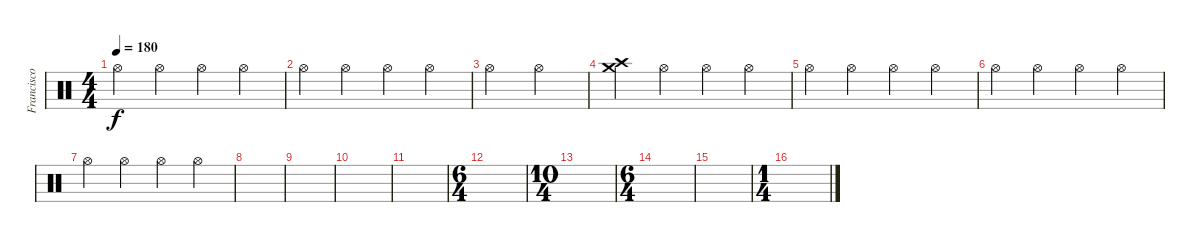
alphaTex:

\track ("Francisco Izquierdo (Percusión)" "Francisco ") {instrument percussion}
\staff {score}
\articulation defaults
\ts (4 4)
\tempo 180
\clef neutral
\ks c "Hi-Hat (open)".4{dy f} "Hi-Hat (open)".4 "Hi-Hat (open)".4 "Hi-Hat (open)".4
|
"Hi-Hat (open)".4 "Hi-Hat (open)".4 "Hi-Hat (open)".4 "Hi-Hat (open)".4 |
"Hi-Hat (open)".2 "Hi-Hat (open)".2 |
("Crash high (hit)" "Crash medium (hit)").4 "Hi-Hat (open)".4 "Hi-Hat (open)".4 "Hi-Hat (open)".4 |
"Hi-Hat (open)".4 "Hi-Hat (open)".4 "Hi-Hat (open)".4 "Hi-Hat (open)".4 |
"Hi-Hat (open)".4 "Hi-Hat (open)".4 "Hi-Hat (open)".4 "Hi-Hat (open)".4 |
"Hi-Hat (open)".4 "Hi-Hat (open)".4 "Hi-Hat (open)".4 "Hi-Hat (open)".4 |
|
|
|
|
\ts (6 4)
|
\ts (10 4)
|
\ts (6 4)
|
|
\ts (1 4)
